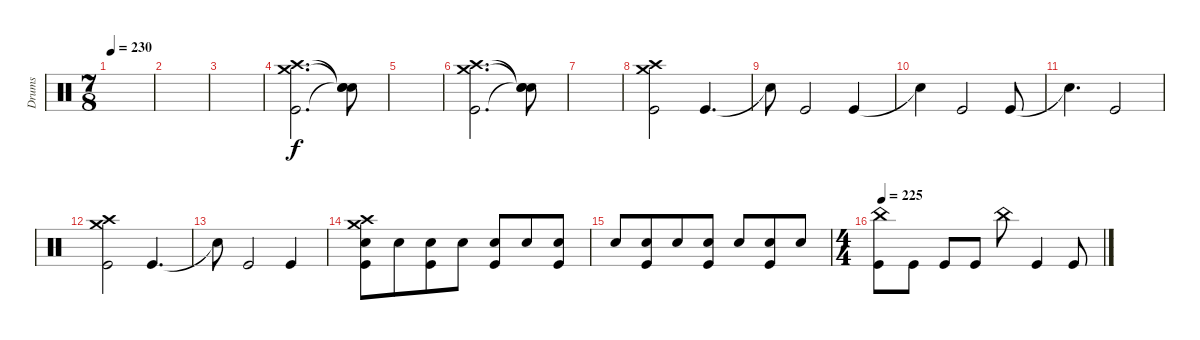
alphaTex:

\track ("Drums" "Drums") {instrument percussion}
\staff {score}
\articulation defaults
\ts (7 8)
\tempo 230
\clef neutral
\ks c
|
|
|
("Crash high (hit)" "Crash medium (hit)" "Kick (hit)").2{d} ("Snare (hit)"{t} "Snare (hit)"{t} "Snare (hit)"{t}).8 |
|
("Crash high (hit)" "Crash medium (hit)" "Kick (hit)").2{d} ("Snare (hit)"{t} "Snare (hit)"{t} "Snare (hit)"{t}).8 |
|
("Crash high (hit)" "Crash medium (hit)" "Kick (hit)").2 "Kick (hit)".4{d} |
"Snare (hit)"{t}.8 "Kick (hit)".2 "Kick (hit)".4 |
"Snare (hit)"{t}.4 "Kick (hit)".2 "Kick (hit)".8 |
"Snare (hit)"{t}.4{d} "Kick (hit)".2 |
("Crash high (hit)" "Crash medium (hit)" "Kick (hit)").2 "Kick (hit)".4{d} |
"Snare (hit)"{t}.8 "Kick (hit)".2 "Kick (hit)".4 |
("Crash high (hit)" "Crash medium (hit)" "Snare (hit) 2" "Kick (hit)").8 "Snare (hit) 2".8 ("Snare (hit) 2" "Kick (hit)").8 "Snare (hit) 2".8 ("Snare (hit) 2" "Kick (hit)").8 "Snare (hit) 2".8 ("Snare (hit) 2" "Kick (hit)").8 |
"Snare (hit) 2".8 ("Snare (hit) 2" "Kick (hit)").8 "Snare (hit) 2".8 ("Snare (hit) 2" "Kick (hit)").8 "Snare (hit) 2".8 ("Snare (hit) 2" "Kick (hit)").8 "Snare (hit) 2".8 |
\ts (4 4)
\tempo 225
("China (hit)" "Kick (hit)").8 "Kick (hit)".8 "Kick (hit)".8 "Kick (hit)".8 "China (hit)".8 "Kick (hit)".4 "Kick (hit)".8
